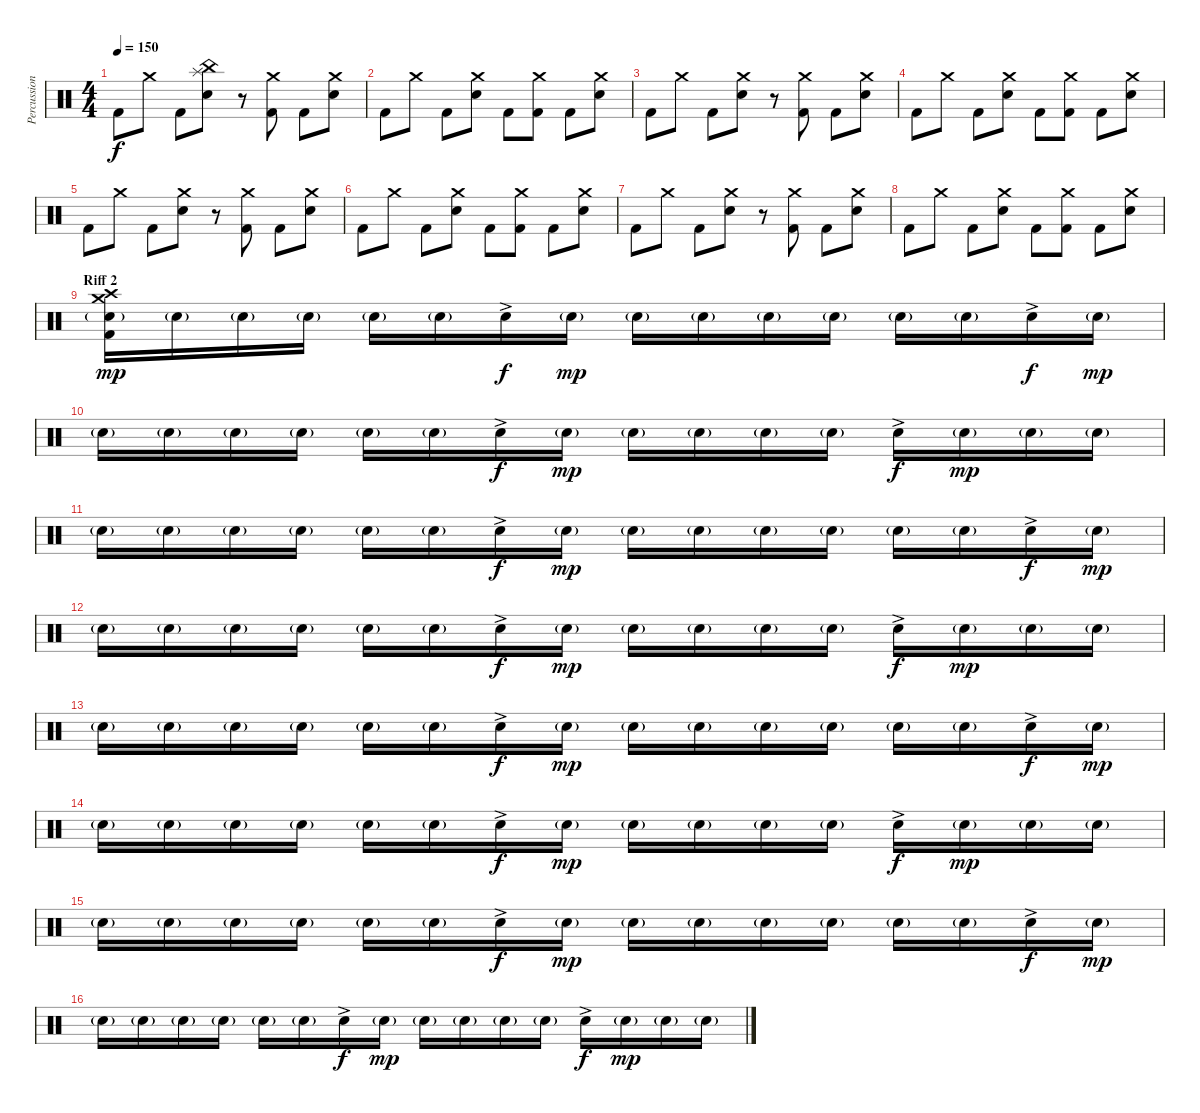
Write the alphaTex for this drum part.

\track ("Percussion" "Percussion") {instrument percussion}
\staff {score}
\articulation defaults
\ts (4 4)
\tempo 150
\clef neutral
\ks c "Kick (hit) 2".8{dy f} "Crash medium (hit)".8 "Kick (hit) 2".8
("China (hit)" "Splash (hit)" "Electric Snare (hit)").8 r.8 ("Crash medium (hit)" "Kick (hit) 2").8 "Kick (hit) 2".8 ("Crash medium (hit)" "Electric Snare (hit)").8 |
"Kick (hit) 2".8 "Crash medium (hit)".8 "Kick (hit) 2".8 ("Crash medium (hit)" "Electric Snare (hit)").8 "Kick (hit) 2".8 ("Crash medium (hit)" "Kick (hit) 2").8 "Kick (hit) 2".8 ("Crash medium (hit)" "Electric Snare (hit)").8 |
"Kick (hit) 2".8 "Crash medium (hit)".8 "Kick (hit) 2".8 ("Crash medium (hit)" "Electric Snare (hit)").8 r.8 ("Crash medium (hit)" "Kick (hit) 2").8 "Kick (hit) 2".8 ("Crash medium (hit)" "Electric Snare (hit)").8 |
"Kick (hit) 2".8 "Crash medium (hit)".8 "Kick (hit) 2".8 ("Crash medium (hit)" "Electric Snare (hit)").8 "Kick (hit) 2".8 ("Crash medium (hit)" "Kick (hit) 2").8 "Kick (hit) 2".8 ("Crash medium (hit)" "Electric Snare (hit)").8 |
"Kick (hit) 2".8 "Crash medium (hit)".8 "Kick (hit) 2".8 ("Crash medium (hit)" "Electric Snare (hit)").8 r.8 ("Crash medium (hit)" "Kick (hit) 2").8 "Kick (hit) 2".8 ("Crash medium (hit)" "Electric Snare (hit)").8 |
"Kick (hit) 2".8 "Crash medium (hit)".8 "Kick (hit) 2".8 ("Crash medium (hit)" "Electric Snare (hit)").8 "Kick (hit) 2".8 ("Crash medium (hit)" "Kick (hit) 2").8 "Kick (hit) 2".8 ("Crash medium (hit)" "Electric Snare (hit)").8 |
"Kick (hit) 2".8 "Crash medium (hit)".8 "Kick (hit) 2".8 ("Crash medium (hit)" "Electric Snare (hit)").8 r.8 ("Crash medium (hit)" "Kick (hit) 2").8 "Kick (hit) 2".8 ("Crash medium (hit)" "Electric Snare (hit)").8 |
"Kick (hit) 2".8 "Crash medium (hit)".8 "Kick (hit) 2".8 ("Crash medium (hit)" "Electric Snare (hit)").8 "Kick (hit) 2".8 ("Crash medium (hit)" "Kick (hit) 2").8 "Kick (hit) 2".8 ("Crash medium (hit)" "Electric Snare (hit)").8 |
\section ("" "Riff 2")
("Crash medium (hit)" "Crash high (hit)" "Electric Snare (hit)"{g} "Kick (hit) 2").16{dy mp} "Electric Snare (hit)"{g}.16 "Electric Snare (hit)"{g}.16 "Electric Snare (hit)"{g}.16 "Electric Snare (hit)"{g}.16 "Electric Snare (hit)"{g}.16 "Electric Snare (hit)"{ac}.16{dy f} "Electric Snare (hit)"{g}.16{dy mp} "Electric Snare (hit)"{g}.16 "Electric Snare (hit)"{g}.16 "Electric Snare (hit)"{g}.16 "Electric Snare (hit)"{g}.16 "Electric Snare (hit)"{g}.16 "Electric Snare (hit)"{g}.16 "Electric Snare (hit)"{ac}.16{dy f} "Electric Snare (hit)"{g}.16{dy mp} |
"Electric Snare (hit)"{g}.16 "Electric Snare (hit)"{g}.16 "Electric Snare (hit)"{g}.16 "Electric Snare (hit)"{g}.16 "Electric Snare (hit)"{g}.16 "Electric Snare (hit)"{g}.16 "Electric Snare (hit)"{ac}.16{dy f} "Electric Snare (hit)"{g}.16{dy mp} "Electric Snare (hit)"{g}.16 "Electric Snare (hit)"{g}.16 "Electric Snare (hit)"{g}.16 "Electric Snare (hit)"{g}.16 "Electric Snare (hit)"{ac}.16{dy f} "Electric Snare (hit)"{g}.16{dy mp} "Electric Snare (hit)"{g}.16 "Electric Snare (hit)"{g}.16 |
"Electric Snare (hit)"{g}.16 "Electric Snare (hit)"{g}.16 "Electric Snare (hit)"{g}.16 "Electric Snare (hit)"{g}.16 "Electric Snare (hit)"{g}.16 "Electric Snare (hit)"{g}.16 "Electric Snare (hit)"{ac}.16{dy f} "Electric Snare (hit)"{g}.16{dy mp} "Electric Snare (hit)"{g}.16 "Electric Snare (hit)"{g}.16 "Electric Snare (hit)"{g}.16 "Electric Snare (hit)"{g}.16 "Electric Snare (hit)"{g}.16 "Electric Snare (hit)"{g}.16 "Electric Snare (hit)"{ac}.16{dy f} "Electric Snare (hit)"{g}.16{dy mp} |
"Electric Snare (hit)"{g}.16 "Electric Snare (hit)"{g}.16 "Electric Snare (hit)"{g}.16 "Electric Snare (hit)"{g}.16 "Electric Snare (hit)"{g}.16 "Electric Snare (hit)"{g}.16 "Electric Snare (hit)"{ac}.16{dy f} "Electric Snare (hit)"{g}.16{dy mp} "Electric Snare (hit)"{g}.16 "Electric Snare (hit)"{g}.16 "Electric Snare (hit)"{g}.16 "Electric Snare (hit)"{g}.16 "Electric Snare (hit)"{ac}.16{dy f} "Electric Snare (hit)"{g}.16{dy mp} "Electric Snare (hit)"{g}.16 "Electric Snare (hit)"{g}.16 |
"Electric Snare (hit)"{g}.16 "Electric Snare (hit)"{g}.16 "Electric Snare (hit)"{g}.16 "Electric Snare (hit)"{g}.16 "Electric Snare (hit)"{g}.16 "Electric Snare (hit)"{g}.16 "Electric Snare (hit)"{ac}.16{dy f} "Electric Snare (hit)"{g}.16{dy mp} "Electric Snare (hit)"{g}.16 "Electric Snare (hit)"{g}.16 "Electric Snare (hit)"{g}.16 "Electric Snare (hit)"{g}.16 "Electric Snare (hit)"{g}.16 "Electric Snare (hit)"{g}.16 "Electric Snare (hit)"{ac}.16{dy f} "Electric Snare (hit)"{g}.16{dy mp} |
"Electric Snare (hit)"{g}.16 "Electric Snare (hit)"{g}.16 "Electric Snare (hit)"{g}.16 "Electric Snare (hit)"{g}.16 "Electric Snare (hit)"{g}.16 "Electric Snare (hit)"{g}.16 "Electric Snare (hit)"{ac}.16{dy f} "Electric Snare (hit)"{g}.16{dy mp} "Electric Snare (hit)"{g}.16 "Electric Snare (hit)"{g}.16 "Electric Snare (hit)"{g}.16 "Electric Snare (hit)"{g}.16 "Electric Snare (hit)"{ac}.16{dy f} "Electric Snare (hit)"{g}.16{dy mp} "Electric Snare (hit)"{g}.16 "Electric Snare (hit)"{g}.16 |
"Electric Snare (hit)"{g}.16 "Electric Snare (hit)"{g}.16 "Electric Snare (hit)"{g}.16 "Electric Snare (hit)"{g}.16 "Electric Snare (hit)"{g}.16 "Electric Snare (hit)"{g}.16 "Electric Snare (hit)"{ac}.16{dy f} "Electric Snare (hit)"{g}.16{dy mp} "Electric Snare (hit)"{g}.16 "Electric Snare (hit)"{g}.16 "Electric Snare (hit)"{g}.16 "Electric Snare (hit)"{g}.16 "Electric Snare (hit)"{g}.16 "Electric Snare (hit)"{g}.16 "Electric Snare (hit)"{ac}.16{dy f} "Electric Snare (hit)"{g}.16{dy mp} |
"Electric Snare (hit)"{g}.16 "Electric Snare (hit)"{g}.16 "Electric Snare (hit)"{g}.16 "Electric Snare (hit)"{g}.16 "Electric Snare (hit)"{g}.16 "Electric Snare (hit)"{g}.16 "Electric Snare (hit)"{ac}.16{dy f} "Electric Snare (hit)"{g}.16{dy mp} "Electric Snare (hit)"{g}.16 "Electric Snare (hit)"{g}.16 "Electric Snare (hit)"{g}.16 "Electric Snare (hit)"{g}.16 "Electric Snare (hit)"{ac}.16{dy f} "Electric Snare (hit)"{g}.16{dy mp} "Electric Snare (hit)"{g}.16 "Electric Snare (hit)"{g}.16
